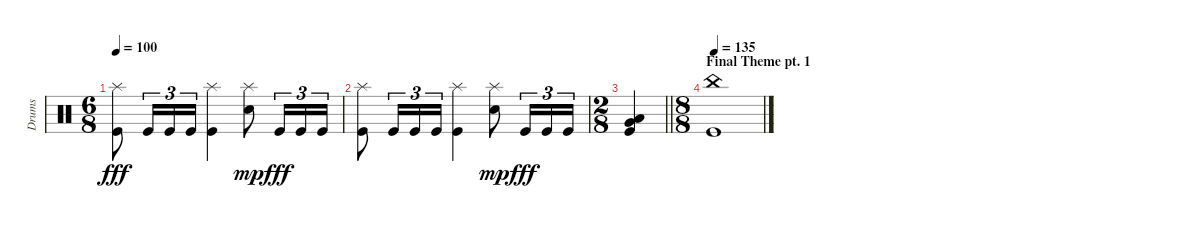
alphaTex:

\track ("Drums" "Drums") {instrument percussion}
\staff
\articulation defaults
\ts (6 8)
\tempo 100
\clef neutral
\ks c
("Splash (hit)" "Kick (hit)").8{dy fff} "Kick (hit)".16{tu (3 2)} "Kick (hit)".16{tu (3 2)} "Kick (hit)".16{tu (3 2)} ("Splash (hit)" "Kick (hit)").4 ("Splash (hit)" "Snare (hit) 2").8{dy mp} "Kick (hit)".16{tu (3 2) dy fff} "Kick (hit)".16{tu (3 2)} "Kick (hit)".16{tu (3 2)} |
("Splash (hit)" "Kick (hit)").8 "Kick (hit)".16{tu (3 2)} "Kick (hit)".16{tu (3 2)} "Kick (hit)".16{tu (3 2)} ("Splash (hit)" "Kick (hit)").4 ("Splash (hit)" "Snare (hit) 2").8{dy mp} "Kick (hit)".16{tu (3 2) dy fff} "Kick (hit)".16{tu (3 2)} "Kick (hit)".16{tu (3 2)} |
\ts (2 8)
\barLineRight lightlight
("Very Low Tom (hit)" "Low Floor Tom (hit)" "Kick (hit)").4 |
\ts (8 8)
\section ("" "Final Theme pt. 1")
\tempo 135
("China (hit)" "Kick (hit)").1
